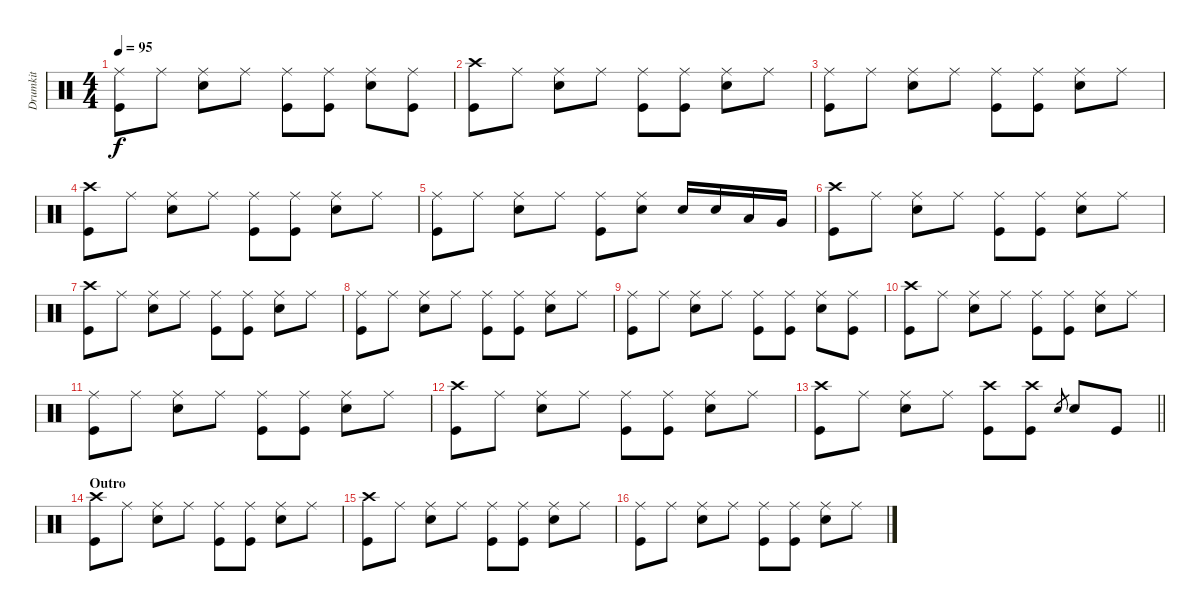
\track ("Drumkit" "Drumkit") {instrument percussion}
\staff {score}
\articulation defaults
\ts (4 4)
\tempo 95
\clef neutral
\ks c
("Kick (hit)" "Ride (middle)").8{dy f} "Ride (middle)".8 ("Snare (hit) 2" "Ride (middle)").8 "Ride (middle)".8 ("Kick (hit)" "Ride (middle)").8 ("Kick (hit)" "Ride (middle)").8 ("Snare (hit) 2" "Ride (middle)").8 ("Ride (middle)" "Kick (hit)").8 |
("Kick (hit)" "Crash high (hit)").8 "Ride (middle)".8 ("Snare (hit) 2" "Ride (middle)").8 "Ride (middle)".8 ("Kick (hit)" "Ride (middle)").8 ("Kick (hit)" "Ride (middle)").8 ("Snare (hit) 2" "Ride (middle)").8 "Ride (middle)".8 |
("Kick (hit)" "Ride (middle)").8 "Ride (middle)".8 ("Snare (hit) 2" "Ride (middle)").8 "Ride (middle)".8 ("Kick (hit)" "Ride (middle)").8 ("Kick (hit)" "Ride (middle)").8 ("Snare (hit) 2" "Ride (middle)").8 "Ride (middle)".8 |
("Kick (hit)" "Crash high (hit)").8 "Ride (middle)".8 ("Snare (hit) 2" "Ride (middle)").8 "Ride (middle)".8 ("Kick (hit)" "Ride (middle)").8 ("Kick (hit)" "Ride (middle)").8 ("Snare (hit) 2" "Ride (middle)").8 "Ride (middle)".8 |
("Kick (hit)" "Ride (middle)").8 "Ride (middle)".8 ("Snare (hit) 2" "Ride (middle)").8 "Ride (middle)".8 ("Kick (hit)" "Ride (middle)").8 ("Snare (hit) 2" "Ride (middle)").8 "Snare (hit) 2".16 "Snare (hit) 2".16 "Low Tom (hit)".16 "Very Low Tom (hit)".16 |
("Kick (hit)" "Crash high (hit)").8 "Ride (middle)".8 ("Snare (hit) 2" "Ride (middle)").8 "Ride (middle)".8 ("Kick (hit)" "Ride (middle)").8 ("Kick (hit)" "Ride (middle)").8 ("Snare (hit) 2" "Ride (middle)").8 "Ride (middle)".8 |
("Kick (hit)" "Crash high (hit)").8 "Ride (middle)".8 ("Snare (hit) 2" "Ride (middle)").8 "Ride (middle)".8 ("Kick (hit)" "Ride (middle)").8 ("Kick (hit)" "Ride (middle)").8 ("Snare (hit) 2" "Ride (middle)").8 "Ride (middle)".8 |
("Kick (hit)" "Ride (middle)").8 "Ride (middle)".8 ("Snare (hit) 2" "Ride (middle)").8 "Ride (middle)".8 ("Kick (hit)" "Ride (middle)").8 ("Kick (hit)" "Ride (middle)").8 ("Snare (hit) 2" "Ride (middle)").8 "Ride (middle)".8 |
("Kick (hit)" "Ride (middle)").8 "Ride (middle)".8 ("Snare (hit) 2" "Ride (middle)").8 "Ride (middle)".8 ("Kick (hit)" "Ride (middle)").8 ("Kick (hit)" "Ride (middle)").8 ("Snare (hit) 2" "Ride (middle)").8 ("Ride (middle)" "Kick (hit)").8 |
("Kick (hit)" "Crash high (hit)").8 "Ride (middle)".8 ("Snare (hit) 2" "Ride (middle)").8 "Ride (middle)".8 ("Kick (hit)" "Ride (middle)").8 ("Kick (hit)" "Ride (middle)").8 ("Snare (hit) 2" "Ride (middle)").8 "Ride (middle)".8 |
("Kick (hit)" "Ride (middle)").8 "Ride (middle)".8 ("Snare (hit) 2" "Ride (middle)").8 "Ride (middle)".8 ("Kick (hit)" "Ride (middle)").8 ("Kick (hit)" "Ride (middle)").8 ("Snare (hit) 2" "Ride (middle)").8 "Ride (middle)".8 |
("Kick (hit)" "Crash high (hit)").8 "Ride (middle)".8 ("Snare (hit) 2" "Ride (middle)").8 "Ride (middle)".8 ("Kick (hit)" "Ride (middle)").8 ("Kick (hit)" "Ride (middle)").8 ("Snare (hit) 2" "Ride (middle)").8 "Ride (middle)".8 |
\barLineRight lightlight
("Kick (hit)" "Crash high (hit)").8 "Ride (middle)".8 ("Snare (hit) 2" "Ride (middle)").8 "Ride (middle)".8 ("Kick (hit)" "Crash high (hit)").8 ("Kick (hit)" "Crash high (hit)").8 "Snare (hit)".8{gr} "Snare (hit) 2".8 "Kick (hit)".8 |
\section ("" "Outro")
("Kick (hit)" "Crash high (hit)").8 "Ride (middle)".8 ("Snare (hit) 2" "Ride (middle)").8 "Ride (middle)".8 ("Kick (hit)" "Ride (middle)").8 ("Kick (hit)" "Ride (middle)").8 ("Snare (hit) 2" "Ride (middle)").8 "Ride (middle)".8 |
("Kick (hit)" "Crash high (hit)").8 "Ride (middle)".8 ("Snare (hit) 2" "Ride (middle)").8 "Ride (middle)".8 ("Kick (hit)" "Ride (middle)").8 ("Kick (hit)" "Ride (middle)").8 ("Snare (hit) 2" "Ride (middle)").8 "Ride (middle)".8 |
("Kick (hit)" "Ride (middle)").8 "Ride (middle)".8 ("Snare (hit) 2" "Ride (middle)").8 "Ride (middle)".8 ("Kick (hit)" "Ride (middle)").8 ("Kick (hit)" "Ride (middle)").8 ("Snare (hit) 2" "Ride (middle)").8 "Ride (middle)".8
